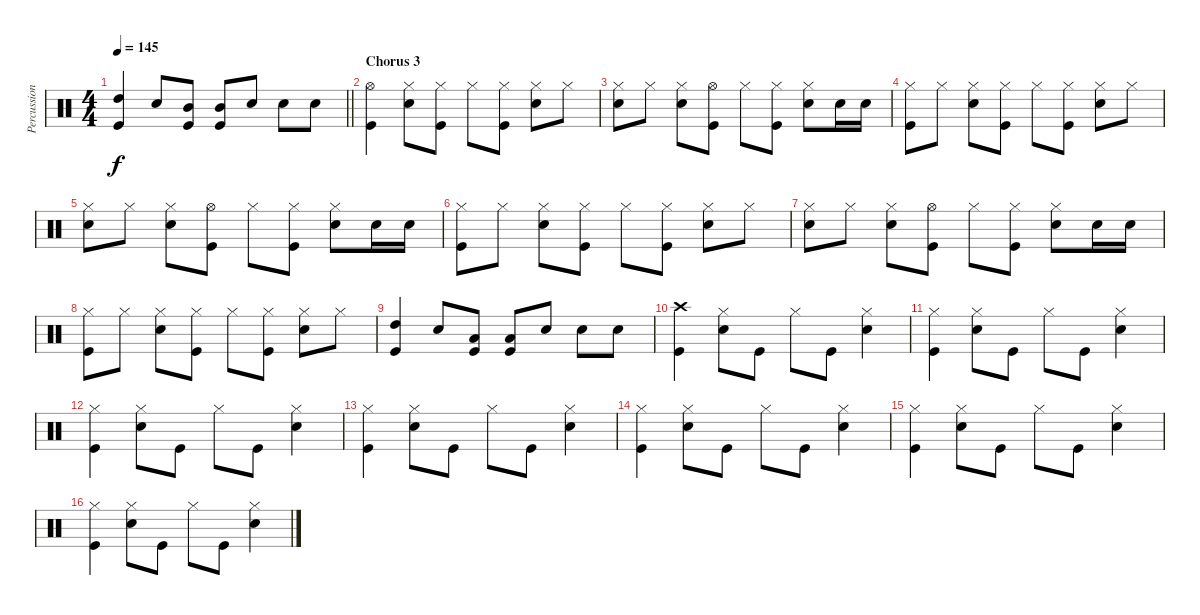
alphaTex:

\track ("Percussion" "Percussion") {instrument percussion}
\staff {score}
\articulation defaults
\ts (4 4)
\tempo 145
\clef neutral
\barLineRight lightlight
\ks c
("Kick (hit)" "High Tom (hit)").4{dy f} "Snare (hit) 2".8 ("Kick (hit)" "Mid Tom (hit)").8 ("Kick (hit)" "Mid Tom (hit)").8 "Snare (hit) 2".8 "Snare (hit) 2".8 "Snare (hit) 2".8 |
\section ("" "Chorus 3")
("Kick (hit)" "Hi-Hat (open)").4 ("Hi-Hat (closed)" "Snare (hit) 2").8 ("Kick (hit)" "Hi-Hat (closed)").8 "Hi-Hat (closed)".8 ("Kick (hit)" "Hi-Hat (closed)").8 ("Hi-Hat (closed)" "Snare (hit) 2").8 "Hi-Hat (closed)".8 |
("Hi-Hat (closed)" "Snare (hit) 2").8 "Hi-Hat (closed)".8 ("Hi-Hat (closed)" "Snare (hit) 2").8 ("Kick (hit)" "Hi-Hat (open)").8 "Hi-Hat (closed)".8 ("Kick (hit)" "Hi-Hat (closed)").8 ("Hi-Hat (closed)" "Snare (hit) 2").8 "Snare (hit) 2".16 "Snare (hit) 2".16 |
("Kick (hit)" "Hi-Hat (closed)").8 "Hi-Hat (closed)".8 ("Hi-Hat (closed)" "Snare (hit) 2").8 ("Kick (hit)" "Hi-Hat (closed)").8 "Hi-Hat (closed)".8 ("Kick (hit)" "Hi-Hat (closed)").8 ("Hi-Hat (closed)" "Snare (hit) 2").8 "Hi-Hat (closed)".8 |
("Hi-Hat (closed)" "Snare (hit) 2").8 "Hi-Hat (closed)".8 ("Hi-Hat (closed)" "Snare (hit) 2").8 ("Kick (hit)" "Hi-Hat (open)").8 "Hi-Hat (closed)".8 ("Kick (hit)" "Hi-Hat (closed)").8 ("Hi-Hat (closed)" "Snare (hit) 2").8 "Snare (hit) 2".16 "Snare (hit) 2".16 |
("Kick (hit)" "Hi-Hat (closed)").8 "Hi-Hat (closed)".8 ("Hi-Hat (closed)" "Snare (hit) 2").8 ("Kick (hit)" "Hi-Hat (closed)").8 "Hi-Hat (closed)".8 ("Kick (hit)" "Hi-Hat (closed)").8 ("Hi-Hat (closed)" "Snare (hit) 2").8 "Hi-Hat (closed)".8 |
("Hi-Hat (closed)" "Snare (hit) 2").8 "Hi-Hat (closed)".8 ("Hi-Hat (closed)" "Snare (hit) 2").8 ("Kick (hit)" "Hi-Hat (open)").8 "Hi-Hat (closed)".8 ("Kick (hit)" "Hi-Hat (closed)").8 ("Hi-Hat (closed)" "Snare (hit) 2").8 "Snare (hit) 2".16 "Snare (hit) 2".16 |
("Kick (hit)" "Hi-Hat (closed)").8 "Hi-Hat (closed)".8 ("Hi-Hat (closed)" "Snare (hit) 2").8 ("Kick (hit)" "Hi-Hat (closed)").8 "Hi-Hat (closed)".8 ("Kick (hit)" "Hi-Hat (closed)").8 ("Hi-Hat (closed)" "Snare (hit) 2").8 "Hi-Hat (closed)".8 |
("Kick (hit)" "High Tom (hit)").4 "Snare (hit) 2".8 ("Low Tom (hit)" "Kick (hit)").8 ("Low Tom (hit)" "Kick (hit)").8 "Snare (hit) 2".8 "Snare (hit) 2".8 "Snare (hit) 2".8 |
("Kick (hit)" "Crash high (hit)").4 ("Hi-Hat (closed)" "Snare (hit) 2").8 "Kick (hit)".8 "Hi-Hat (closed)".8 "Kick (hit)".8 ("Hi-Hat (closed)" "Snare (hit) 2").4 |
("Kick (hit)" "Hi-Hat (closed)").4 ("Hi-Hat (closed)" "Snare (hit) 2").8 "Kick (hit)".8 "Hi-Hat (closed)".8 "Kick (hit)".8 ("Hi-Hat (closed)" "Snare (hit) 2").4 |
("Kick (hit)" "Hi-Hat (closed)").4 ("Hi-Hat (closed)" "Snare (hit) 2").8 "Kick (hit)".8 "Hi-Hat (closed)".8 "Kick (hit)".8 ("Hi-Hat (closed)" "Snare (hit) 2").4 |
("Kick (hit)" "Hi-Hat (closed)").4 ("Hi-Hat (closed)" "Snare (hit) 2").8 "Kick (hit)".8 "Hi-Hat (closed)".8 "Kick (hit)".8 ("Hi-Hat (closed)" "Snare (hit) 2").4 |
("Kick (hit)" "Hi-Hat (closed)").4 ("Hi-Hat (closed)" "Snare (hit) 2").8 "Kick (hit)".8 "Hi-Hat (closed)".8 "Kick (hit)".8 ("Hi-Hat (closed)" "Snare (hit) 2").4 |
("Kick (hit)" "Hi-Hat (closed)").4 ("Hi-Hat (closed)" "Snare (hit) 2").8 "Kick (hit)".8 "Hi-Hat (closed)".8 "Kick (hit)".8 ("Hi-Hat (closed)" "Snare (hit) 2").4 |
("Kick (hit)" "Hi-Hat (closed)").4 ("Hi-Hat (closed)" "Snare (hit) 2").8 "Kick (hit)".8 "Hi-Hat (closed)".8 "Kick (hit)".8 ("Hi-Hat (closed)" "Snare (hit) 2").4
